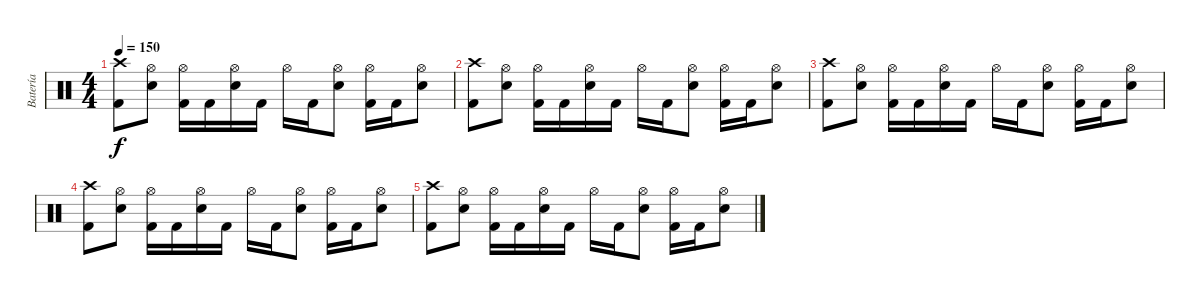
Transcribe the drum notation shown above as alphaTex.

\track ("Batería" "Batería") {instrument percussion}
\staff {score}
\articulation defaults
\ts (4 4)
\tempo 150
\clef neutral
\ks c
("Kick (hit) 2" "Crash high (hit)").8{dy f} ("Electric Snare (hit)" "Hi-Hat (open)").8 ("Kick (hit) 2" "Hi-Hat (open)").16 "Kick (hit) 2".16 ("Electric Snare (hit)" "Hi-Hat (open)").16 "Kick (hit) 2".16 "Hi-Hat (open)".16 "Kick (hit) 2".16 ("Electric Snare (hit)" "Hi-Hat (open)").8 ("Kick (hit) 2" "Hi-Hat (open)").16 "Kick (hit) 2".16 ("Electric Snare (hit)" "Hi-Hat (open)").8 |
("Kick (hit) 2" "Crash high (hit)").8 ("Electric Snare (hit)" "Hi-Hat (open)").8 ("Kick (hit) 2" "Hi-Hat (open)").16 "Kick (hit) 2".16 ("Electric Snare (hit)" "Hi-Hat (open)").16 "Kick (hit) 2".16 "Hi-Hat (open)".16 "Kick (hit) 2".16 ("Electric Snare (hit)" "Hi-Hat (open)").8 ("Kick (hit) 2" "Hi-Hat (open)").16 "Kick (hit) 2".16 ("Electric Snare (hit)" "Hi-Hat (open)").8 |
("Kick (hit) 2" "Crash high (hit)").8 ("Electric Snare (hit)" "Hi-Hat (open)").8 ("Kick (hit) 2" "Hi-Hat (open)").16 "Kick (hit) 2".16 ("Electric Snare (hit)" "Hi-Hat (open)").16 "Kick (hit) 2".16 "Hi-Hat (open)".16 "Kick (hit) 2".16 ("Electric Snare (hit)" "Hi-Hat (open)").8 ("Kick (hit) 2" "Hi-Hat (open)").16 "Kick (hit) 2".16 ("Electric Snare (hit)" "Hi-Hat (open)").8 |
("Kick (hit) 2" "Crash high (hit)").8 ("Electric Snare (hit)" "Hi-Hat (open)").8 ("Kick (hit) 2" "Hi-Hat (open)").16 "Kick (hit) 2".16 ("Electric Snare (hit)" "Hi-Hat (open)").16 "Kick (hit) 2".16 "Hi-Hat (open)".16 "Kick (hit) 2".16 ("Electric Snare (hit)" "Hi-Hat (open)").8 ("Kick (hit) 2" "Hi-Hat (open)").16 "Kick (hit) 2".16 ("Electric Snare (hit)" "Hi-Hat (open)").8 |
("Kick (hit) 2" "Crash high (hit)").8 ("Electric Snare (hit)" "Hi-Hat (open)").8 ("Kick (hit) 2" "Hi-Hat (open)").16 "Kick (hit) 2".16 ("Electric Snare (hit)" "Hi-Hat (open)").16 "Kick (hit) 2".16 "Hi-Hat (open)".16 "Kick (hit) 2".16 ("Electric Snare (hit)" "Hi-Hat (open)").8 ("Kick (hit) 2" "Hi-Hat (open)").16 "Kick (hit) 2".16 ("Electric Snare (hit)" "Hi-Hat (open)").8
